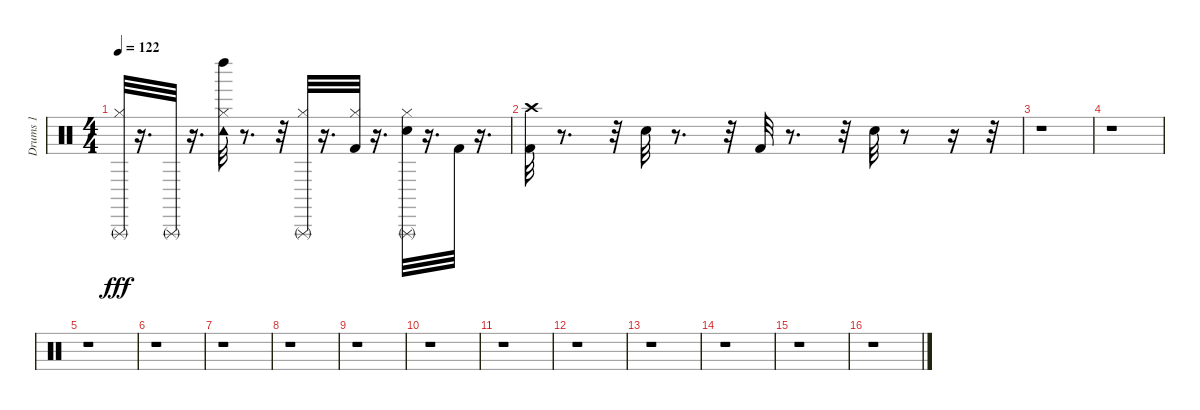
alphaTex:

\track ("Drums 1" "Drums 1") {instrument percussion}
\staff {score}
\articulation defaults
\ts (4 4)
\tempo 122
\clef neutral
\ks c
("Hi-Hat (closed)" "Triangle (rnute)").32{dy fff} r.16{d} "Triangle (rnute)".32 r.16{d} ("Tambourine (hit)" "Hi-Hat (closed)" "Left Maraca (hit)").32 r.8{d} r.32 ("Hi-Hat (closed)" "Triangle (rnute)").32 r.16{d} ("Kick (hit) 2" "Hi-Hat (closed)").32 r.16{d} ("Triangle (rnute)" "Hi-Hat (closed)" "Snare (hit) 2").32 r.16{d} "Kick (hit) 2".32 r.16{d} |
("Crash high (hit)" "Kick (hit) 2").32 r.8{d} r.32 "Snare (hit) 2".32 r.8{d} r.32 "Kick (hit) 2".32 r.8{d} r.32 "Snare (hit) 2".32 r.8 r.16 r.32 |
r.1 |
r.1 |
r.1 |
r.1 |
r.1 |
r.1 |
r.1 |
r.1 |
r.1 |
r.1 |
r.1 |
r.1 |
r.1 |
r.1
